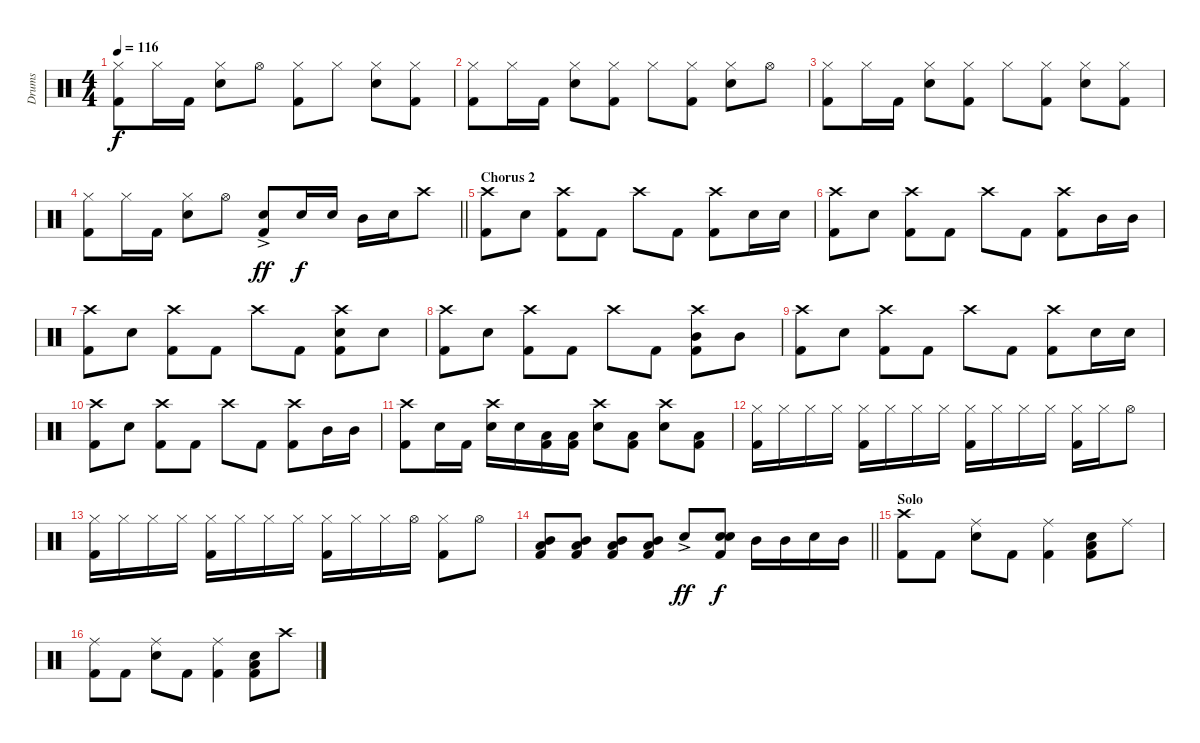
\track ("Drums" "Drums") {instrument percussion}
\staff {score}
\articulation defaults
\ts (4 4)
\tempo 116
\clef neutral
\ks c
("Hi-Hat (closed)" "Kick (hit) 2").8{dy f} "Hi-Hat (closed)".16 "Kick (hit) 2".16 ("Hi-Hat (closed)" "Snare (hit) 2").8 "Hi-Hat (open)".8 ("Hi-Hat (closed)" "Kick (hit) 2").8 "Hi-Hat (closed)".8 ("Hi-Hat (closed)" "Snare (hit) 2").8 ("Hi-Hat (closed)" "Kick (hit) 2").8 |
("Hi-Hat (closed)" "Kick (hit) 2").8 "Hi-Hat (closed)".16 "Kick (hit) 2".16 ("Hi-Hat (closed)" "Snare (hit) 2").8 ("Hi-Hat (closed)" "Kick (hit) 2").8 "Hi-Hat (closed)".8 ("Hi-Hat (closed)" "Kick (hit) 2").8 ("Hi-Hat (closed)" "Snare (hit) 2").8 "Hi-Hat (open)".8 |
("Hi-Hat (closed)" "Kick (hit) 2").8 "Hi-Hat (closed)".16 "Kick (hit) 2".16 ("Hi-Hat (closed)" "Snare (hit) 2").8 ("Hi-Hat (closed)" "Kick (hit) 2").8 "Hi-Hat (closed)".8 ("Hi-Hat (closed)" "Kick (hit) 2").8 ("Hi-Hat (closed)" "Snare (hit) 2").8 ("Hi-Hat (closed)" "Kick (hit) 2").8 |
\barLineRight lightlight
("Hi-Hat (closed)" "Kick (hit) 2").8 "Hi-Hat (closed)".16 "Kick (hit) 2".16 ("Hi-Hat (closed)" "Snare (hit) 2").8 "Hi-Hat (open)".8 ("Snare (hit) 2"{ac} "Kick (hit) 2").8{dy ff} "Snare (hit) 2".16{dy f} "Snare (hit) 2".16 "Mid Tom (hit)".16 "Snare (hit) 2".16 "Crash high (hit)".8 |
\section ("" "Chorus 2")
("Crash high (hit)" "Kick (hit) 2").8 "Snare (hit) 2".8 ("Crash high (hit)" "Kick (hit) 2").8 "Kick (hit) 2".8 "Crash high (hit)".8 "Kick (hit) 2".8 ("Crash high (hit)" "Kick (hit) 2").8 "Snare (hit) 2".16 "Snare (hit) 2".16 |
("Crash high (hit)" "Kick (hit) 2").8 "Snare (hit) 2".8 ("Crash high (hit)" "Kick (hit) 2").8 "Kick (hit) 2".8 "Crash high (hit)".8 "Kick (hit) 2".8 ("Crash high (hit)" "Kick (hit) 2").8 "Mid Tom (hit)".16 "Mid Tom (hit)".16 |
("Crash high (hit)" "Kick (hit) 2").8 "Snare (hit) 2".8 ("Crash high (hit)" "Kick (hit) 2").8 "Kick (hit) 2".8 "Crash high (hit)".8 "Kick (hit) 2".8 ("Crash high (hit)" "Snare (hit) 2" "Kick (hit) 2").8 "Snare (hit) 2".8 |
("Crash high (hit)" "Kick (hit) 2").8 "Snare (hit) 2".8 ("Crash high (hit)" "Kick (hit) 2").8 "Kick (hit) 2".8 "Crash high (hit)".8 "Kick (hit) 2".8 ("Crash high (hit)" "Mid Tom (hit)" "Kick (hit) 2").8 "Mid Tom (hit)".8 |
("Crash high (hit)" "Kick (hit) 2").8 "Snare (hit) 2".8 ("Crash high (hit)" "Kick (hit) 2").8 "Kick (hit) 2".8 "Crash high (hit)".8 "Kick (hit) 2".8 ("Crash high (hit)" "Kick (hit) 2").8 "Snare (hit) 2".16 "Snare (hit) 2".16 |
("Crash high (hit)" "Kick (hit) 2").8 "Snare (hit) 2".8 ("Crash high (hit)" "Kick (hit) 2").8 "Kick (hit) 2".8 "Crash high (hit)".8 "Kick (hit) 2".8 ("Crash high (hit)" "Kick (hit) 2").8 "Mid Tom (hit)".16 "Mid Tom (hit)".16 |
("Crash high (hit)" "Kick (hit) 2").8 "Snare (hit) 2".16 "Kick (hit) 2".16 ("Crash high (hit)" "Snare (hit) 2").16 "Snare (hit) 2".16 ("Low Floor Tom (hit)" "Kick (hit) 2").16 ("Low Floor Tom (hit)" "Kick (hit) 2").16 ("Crash high (hit)" "Snare (hit) 2").8 ("Low Floor Tom (hit)" "Kick (hit) 2").8 ("Crash high (hit)" "Snare (hit) 2").8 ("Low Floor Tom (hit)" "Kick (hit) 2").8 |
("Hi-Hat (closed)" "Kick (hit) 2").16 "Hi-Hat (closed)".16 "Hi-Hat (closed)".16 "Hi-Hat (closed)".16 ("Hi-Hat (closed)" "Kick (hit) 2").16 "Hi-Hat (closed)".16 "Hi-Hat (closed)".16 "Hi-Hat (closed)".16 ("Hi-Hat (closed)" "Kick (hit) 2").16 "Hi-Hat (closed)".16 "Hi-Hat (closed)".16 "Hi-Hat (closed)".16 ("Hi-Hat (closed)" "Kick (hit) 2").16 "Hi-Hat (closed)".16 "Hi-Hat (open)".8 |
("Hi-Hat (closed)" "Kick (hit) 2").16 "Hi-Hat (closed)".16 "Hi-Hat (closed)".16 "Hi-Hat (closed)".16 ("Hi-Hat (closed)" "Kick (hit) 2").16 "Hi-Hat (closed)".16 "Hi-Hat (closed)".16 "Hi-Hat (closed)".16 ("Hi-Hat (closed)" "Kick (hit) 2").16 "Hi-Hat (closed)".16 "Hi-Hat (closed)".16 "Hi-Hat (open)".16 ("Hi-Hat (closed)" "Kick (hit) 2").8 "Hi-Hat (open)".8 |
\barLineRight lightlight
("Mid Tom (hit)" "Low Floor Tom (hit)" "Kick (hit) 2").8 ("Mid Tom (hit)" "Low Floor Tom (hit)" "Kick (hit) 2").8 ("Mid Tom (hit)" "Low Floor Tom (hit)" "Kick (hit) 2").8 ("Mid Tom (hit)" "Low Floor Tom (hit)" "Kick (hit) 2").8 "Snare (hit) 2"{ac}.8{dy ff} ("Snare (hit) 2" "Snare (hit) 2" "Kick (hit) 2").8{dy f} "Mid Tom (hit)".16 "Mid Tom (hit)".16 "Snare (hit) 2".16 "Mid Tom (hit)".16 |
\section ("" "Solo")
("Crash high (hit)" "Kick (hit) 2").8 "Kick (hit) 2".8 ("Ride (middle)" "Snare (hit) 2").8 "Kick (hit) 2".8 ("Ride (middle)" "Kick (hit) 2").4 ("Snare (hit) 2" "Low Floor Tom (hit)" "Kick (hit) 2").8 "Ride (middle)".8 |
("Ride (middle)" "Kick (hit) 2").8 "Kick (hit) 2".8 ("Ride (middle)" "Snare (hit) 2").8 "Kick (hit) 2".8 ("Ride (middle)" "Kick (hit) 2").4 ("Snare (hit) 2" "Low Floor Tom (hit)" "Kick (hit) 2").8 "Crash high (hit)".8
